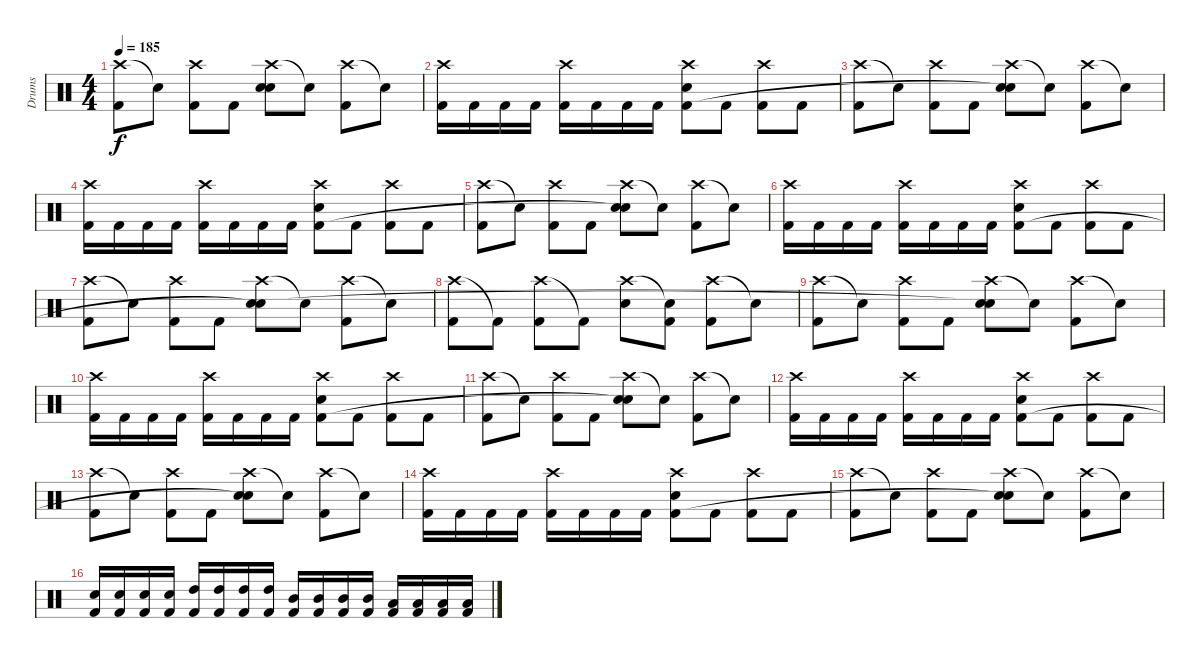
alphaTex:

\track ("Drums" "Drums") {instrument percussion}
\staff {score}
\articulation defaults
\ts (4 4)
\tempo 185
\clef neutral
\ks c
("Crash high (hit)" "Kick (hit) 2").8{dy f} "Snare (hit)"{t}.8 ("Crash high (hit)" "Kick (hit) 2").8 "Kick (hit) 2".8 ("Crash high (hit)" "Electric Snare (hit)" "Snare (hit)").8 "Electric Snare (hit)"{t}.8 ("Crash high (hit)" "Kick (hit) 2").8 "Snare (hit)"{t}.8 |
("Crash high (hit)" "Kick (hit) 2").16 "Kick (hit) 2".16 "Kick (hit) 2".16 "Kick (hit) 2".16 ("Crash high (hit)" "Kick (hit) 2").16 "Kick (hit) 2".16 "Kick (hit) 2".16 "Kick (hit) 2".16 ("Crash high (hit)" "Electric Snare (hit)" "Kick (hit) 2").8 "Kick (hit) 2".8 ("Crash high (hit)" "Kick (hit) 2").8 "Kick (hit) 2".8 |
("Crash high (hit)" "Kick (hit) 2").8 "Snare (hit)"{t}.8 ("Crash high (hit)" "Kick (hit) 2").8 "Kick (hit) 2".8 ("Crash high (hit)" "Electric Snare (hit)" "Snare (hit)"{t}).8 "Electric Snare (hit)"{t}.8 ("Crash high (hit)" "Kick (hit) 2").8 "Snare (hit)"{t}.8 |
("Crash high (hit)" "Kick (hit) 2").16 "Kick (hit) 2".16 "Kick (hit) 2".16 "Kick (hit) 2".16 ("Crash high (hit)" "Kick (hit) 2").16 "Kick (hit) 2".16 "Kick (hit) 2".16 "Kick (hit) 2".16 ("Crash high (hit)" "Electric Snare (hit)" "Kick (hit) 2").8 "Kick (hit) 2".8 ("Crash high (hit)" "Kick (hit) 2").8 "Kick (hit) 2".8 |
("Crash high (hit)" "Kick (hit) 2").8 "Snare (hit)"{t}.8 ("Crash high (hit)" "Kick (hit) 2").8 "Kick (hit) 2".8 ("Crash high (hit)" "Electric Snare (hit)" "Snare (hit)"{t}).8 "Electric Snare (hit)"{t}.8 ("Crash high (hit)" "Kick (hit) 2").8 "Snare (hit)"{t}.8 |
("Crash high (hit)" "Kick (hit) 2").16 "Kick (hit) 2".16 "Kick (hit) 2".16 "Kick (hit) 2".16 ("Crash high (hit)" "Kick (hit) 2").16 "Kick (hit) 2".16 "Kick (hit) 2".16 "Kick (hit) 2".16 ("Crash high (hit)" "Electric Snare (hit)" "Kick (hit) 2").8 "Kick (hit) 2".8 ("Crash high (hit)" "Kick (hit) 2").8 "Kick (hit) 2".8 |
("Crash high (hit)" "Kick (hit) 2").8 "Snare (hit)"{t}.8 ("Crash high (hit)" "Kick (hit) 2").8 "Kick (hit) 2".8 ("Crash high (hit)" "Electric Snare (hit)" "Snare (hit)"{t}).8 "Electric Snare (hit)"{t}.8 ("Crash high (hit)" "Kick (hit) 2").8 "Snare (hit)"{t}.8 |
("Crash high (hit)" "Kick (hit) 2").8 "Kick (hit) 2"{t}.8 ("Crash high (hit)" "Kick (hit) 2").8 "Kick (hit) 2"{t}.8 ("Crash high (hit)" "Electric Snare (hit)").8 ("Snare (hit)"{t} "Kick (hit) 2").8 ("Crash high (hit)" "Kick (hit) 2").8 "Snare (hit)"{t}.8 |
("Crash high (hit)" "Kick (hit) 2").8 "Snare (hit)"{t}.8 ("Crash high (hit)" "Kick (hit) 2").8 "Kick (hit) 2".8 ("Crash high (hit)" "Electric Snare (hit)" "Snare (hit)"{t}).8 "Electric Snare (hit)"{t}.8 ("Crash high (hit)" "Kick (hit) 2").8 "Snare (hit)"{t}.8 |
("Crash high (hit)" "Kick (hit) 2").16 "Kick (hit) 2".16 "Kick (hit) 2".16 "Kick (hit) 2".16 ("Crash high (hit)" "Kick (hit) 2").16 "Kick (hit) 2".16 "Kick (hit) 2".16 "Kick (hit) 2".16 ("Crash high (hit)" "Electric Snare (hit)" "Kick (hit) 2").8 "Kick (hit) 2".8 ("Crash high (hit)" "Kick (hit) 2").8 "Kick (hit) 2".8 |
("Crash high (hit)" "Kick (hit) 2").8 "Snare (hit)"{t}.8 ("Crash high (hit)" "Kick (hit) 2").8 "Kick (hit) 2".8 ("Crash high (hit)" "Electric Snare (hit)" "Snare (hit)"{t}).8 "Electric Snare (hit)"{t}.8 ("Crash high (hit)" "Kick (hit) 2").8 "Snare (hit)"{t}.8 |
("Crash high (hit)" "Kick (hit) 2").16 "Kick (hit) 2".16 "Kick (hit) 2".16 "Kick (hit) 2".16 ("Crash high (hit)" "Kick (hit) 2").16 "Kick (hit) 2".16 "Kick (hit) 2".16 "Kick (hit) 2".16 ("Crash high (hit)" "Electric Snare (hit)" "Kick (hit) 2").8 "Kick (hit) 2".8 ("Crash high (hit)" "Kick (hit) 2").8 "Kick (hit) 2".8 |
("Crash high (hit)" "Kick (hit) 2").8 "Snare (hit)"{t}.8 ("Crash high (hit)" "Kick (hit) 2").8 "Kick (hit) 2".8 ("Crash high (hit)" "Electric Snare (hit)" "Snare (hit)"{t}).8 "Electric Snare (hit)"{t}.8 ("Crash high (hit)" "Kick (hit) 2").8 "Snare (hit)"{t}.8 |
("Crash high (hit)" "Kick (hit) 2").16 "Kick (hit) 2".16 "Kick (hit) 2".16 "Kick (hit) 2".16 ("Crash high (hit)" "Kick (hit) 2").16 "Kick (hit) 2".16 "Kick (hit) 2".16 "Kick (hit) 2".16 ("Crash high (hit)" "Electric Snare (hit)" "Kick (hit) 2").8 "Kick (hit) 2".8 ("Crash high (hit)" "Kick (hit) 2").8 "Kick (hit) 2".8 |
("Crash high (hit)" "Kick (hit) 2").8 "Snare (hit)"{t}.8 ("Crash high (hit)" "Kick (hit) 2").8 "Kick (hit) 2".8 ("Crash high (hit)" "Electric Snare (hit)" "Snare (hit)"{t}).8 "Electric Snare (hit)"{t}.8 ("Crash high (hit)" "Kick (hit) 2").8 "Snare (hit)"{t}.8 |
("Electric Snare (hit)" "Kick (hit) 2").16 ("Electric Snare (hit)" "Kick (hit) 2").16 ("Electric Snare (hit)" "Kick (hit) 2").16 ("Electric Snare (hit)" "Kick (hit) 2").16 ("High Tom (hit)" "Kick (hit) 2").16 ("High Tom (hit)" "Kick (hit) 2").16 ("High Tom (hit)" "Kick (hit) 2").16 ("High Tom (hit)" "Kick (hit) 2").16 ("Mid Tom (hit)" "Kick (hit) 2").16 ("Mid Tom (hit)" "Kick (hit) 2").16 ("Mid Tom (hit)" "Kick (hit) 2").16 ("Mid Tom (hit)" "Kick (hit) 2").16 ("Low Tom (hit)" "Kick (hit) 2").16 ("Low Tom (hit)" "Kick (hit) 2").16 ("Low Tom (hit)" "Kick (hit) 2").16 ("Low Tom (hit)" "Kick (hit) 2").16
